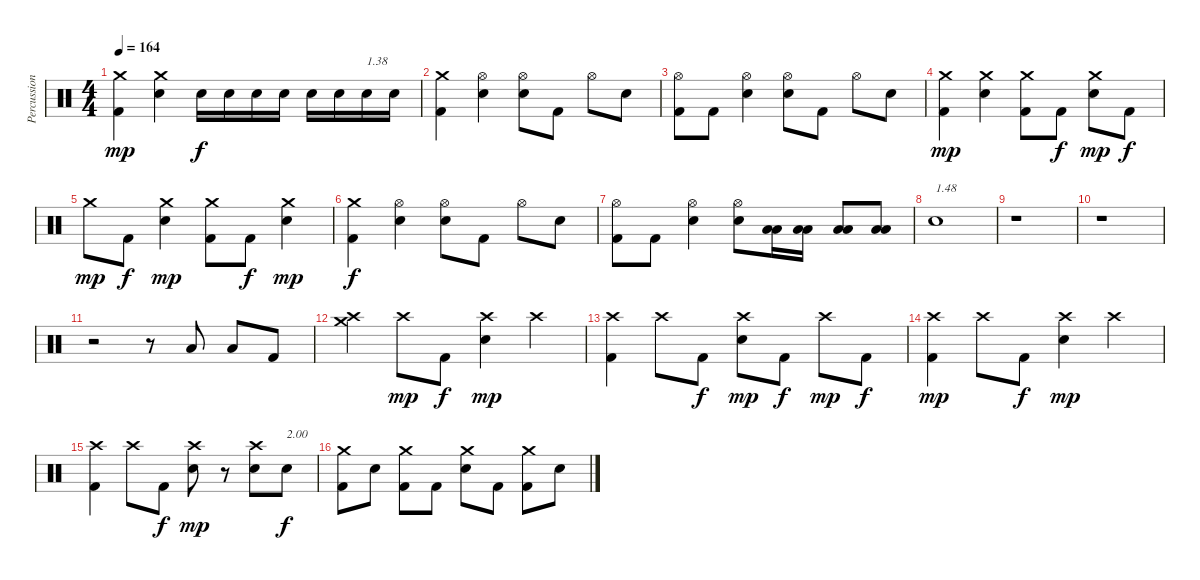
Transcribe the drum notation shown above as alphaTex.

\track ("Percussions" "Percussion") {instrument percussion}
\staff {score}
\articulation defaults
\ts (4 4)
\tempo 164
\clef neutral
\ks c
("Kick (hit) 2" "Crash medium (hit)").4{dy mp} ("Snare (hit) 2" "Crash medium (hit)").4 "Snare (hit) 2".16{dy f} "Snare (hit) 2".16 "Snare (hit) 2".16 "Snare (hit) 2".16 "Snare (hit) 2".16 "Snare (hit) 2".16 "Snare (hit) 2".16{txt "1.38"} "Snare (hit) 2".16 |
("Kick (hit) 2" "Crash medium (hit)").4 ("Snare (hit) 2" "Hi-Hat (open)").4 ("Snare (hit) 2" "Hi-Hat (open)").8 "Kick (hit) 2".8 "Hi-Hat (open)".8 "Snare (hit) 2".8 |
("Kick (hit) 2" "Hi-Hat (open)").8 "Kick (hit) 2".8 ("Snare (hit) 2" "Hi-Hat (open)").4 ("Snare (hit) 2" "Hi-Hat (open)").8 "Kick (hit) 2".8 "Hi-Hat (open)".8 "Snare (hit) 2".8 |
("Kick (hit) 2" "Crash medium (hit)").4{dy mp} ("Snare (hit) 2" "Crash medium (hit)").4 ("Kick (hit) 2" "Crash medium (hit)").8 "Kick (hit) 2".8{dy f} ("Snare (hit) 2" "Crash medium (hit)").8{dy mp} "Kick (hit) 2".8{dy f} |
"Crash medium (hit)".8{dy mp} "Kick (hit) 2".8{dy f} ("Snare (hit) 2" "Crash medium (hit)").4{dy mp} ("Kick (hit) 2" "Crash medium (hit)").8 "Kick (hit) 2".8{dy f} ("Snare (hit) 2" "Crash medium (hit)").4{dy mp} |
("Kick (hit) 2" "Crash medium (hit)").4{dy f} ("Snare (hit) 2" "Hi-Hat (open)").4 ("Snare (hit) 2" "Hi-Hat (open)").8 "Kick (hit) 2".8 "Hi-Hat (open)".8 "Snare (hit) 2".8 |
("Kick (hit) 2" "Hi-Hat (open)").8 "Kick (hit) 2".8 ("Snare (hit) 2" "Hi-Hat (open)").4 ("Snare (hit) 2" "Hi-Hat (open)").8 ("Low Floor Tom (hit)" "Low Tom (hit)").16 ("Low Floor Tom (hit)" "Low Tom (hit)").16 ("Low Floor Tom (hit)" "Low Tom (hit)").8 ("Low Floor Tom (hit)" "Low Tom (hit)").8 |
"Snare (hit) 2".1{txt "1.48"} |
r.1 |
r.1 |
r.2 r.8 "Low Tom (hit)".8 "Low Tom (hit)".8 "Kick (hit) 2".8 |
("Crash high (hit)" "Crash medium (hit)").4 "Crash high (hit)".8{dy mp} "Kick (hit) 2".8{dy f} ("Snare (hit) 2" "Crash high (hit)").4{dy mp} "Crash high (hit)".4 |
("Kick (hit) 2" "Crash high (hit)").4 "Crash high (hit)".8 "Kick (hit) 2".8{dy f} ("Snare (hit) 2" "Crash high (hit)").8{dy mp} "Kick (hit) 2".8{dy f} "Crash high (hit)".8{dy mp} "Kick (hit) 2".8{dy f} |
("Kick (hit) 2" "Crash high (hit)").4{dy mp} "Crash high (hit)".8 "Kick (hit) 2".8{dy f} ("Snare (hit) 2" "Crash high (hit)").4{dy mp} "Crash high (hit)".4 |
("Kick (hit) 2" "Crash high (hit)").4 "Crash high (hit)".8 "Kick (hit) 2".8{dy f} ("Snare (hit) 2" "Crash high (hit)").8{dy mp} r.8 ("Snare (hit) 2" "Crash high (hit)").8 "Snare (hit) 2".8{txt "2.00" dy f} |
("Kick (hit) 2" "Crash medium (hit)").8 "Snare (hit) 2".8 ("Kick (hit) 2" "Crash medium (hit)").8 "Kick (hit) 2".8 ("Snare (hit) 2" "Crash medium (hit)").8 "Kick (hit) 2".8 ("Kick (hit) 2" "Crash medium (hit)").8 "Snare (hit) 2".8
